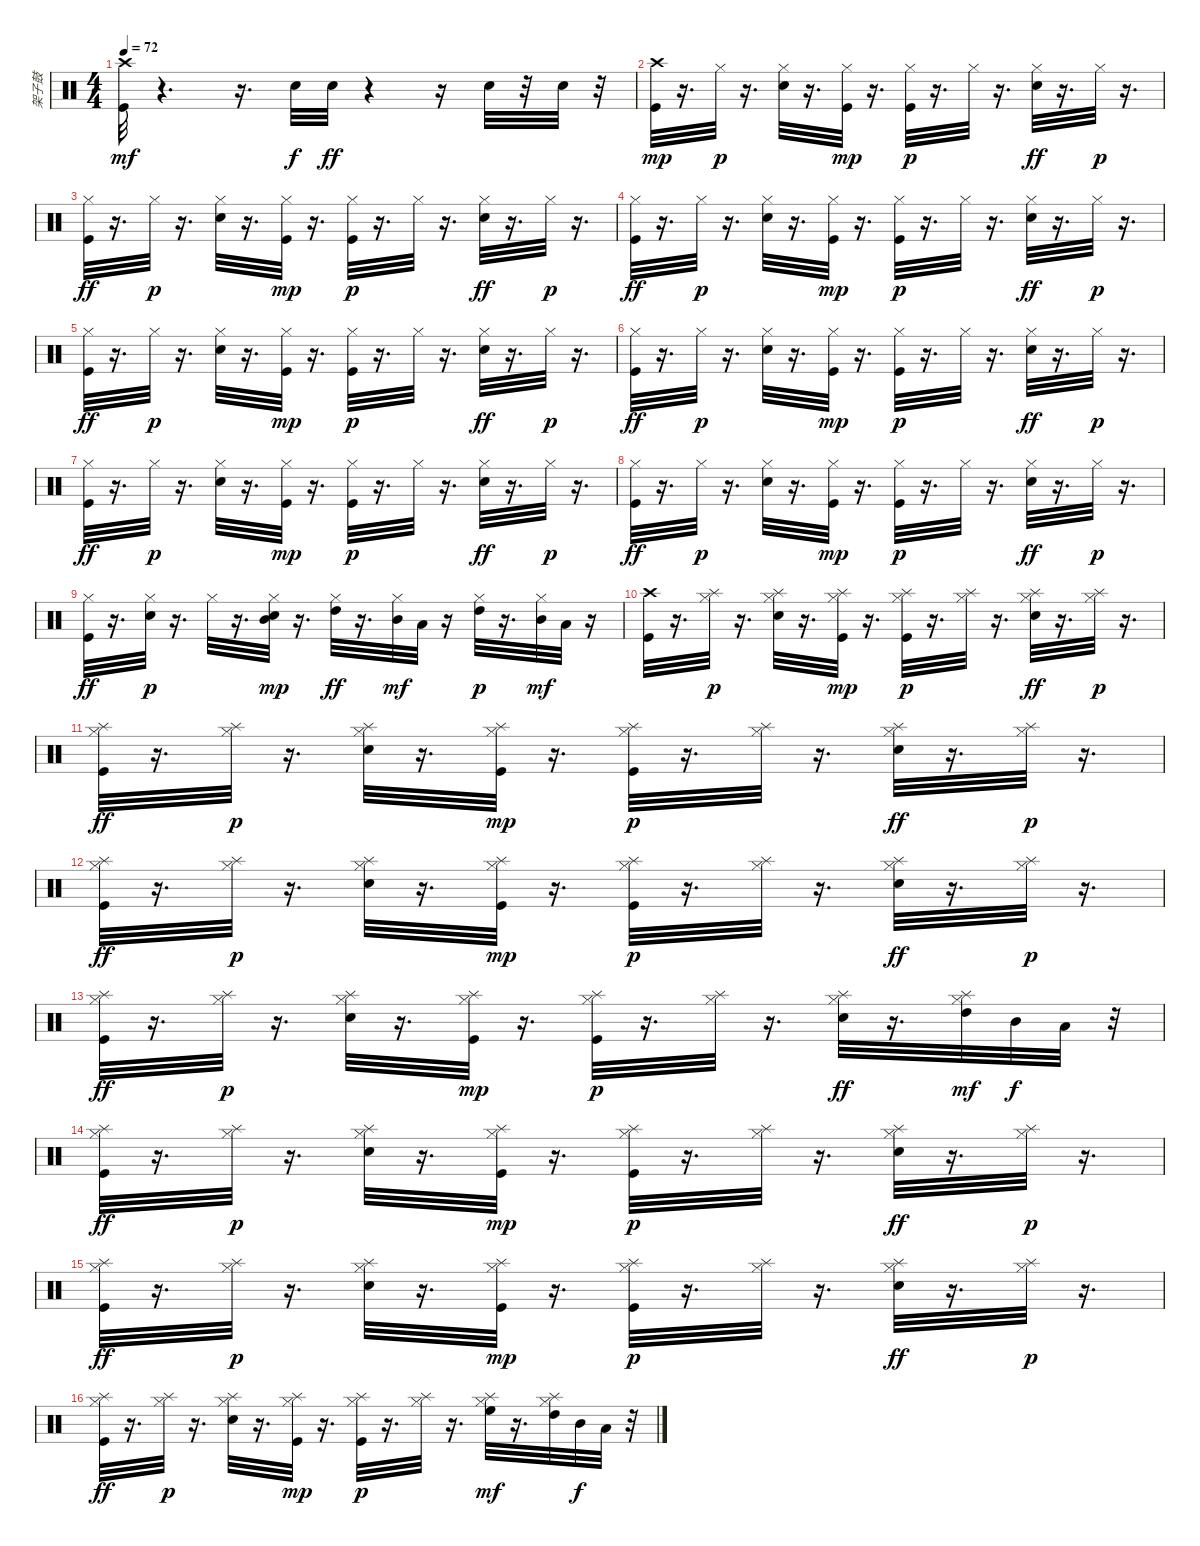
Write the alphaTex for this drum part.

\track ("架子鼓" "架子鼓") {instrument percussion}
\staff {score}
\articulation defaults
\ts (4 4)
\tempo 72
\clef neutral
\ks c
("Crash high (hit)" "Kick (hit)").32{dy mf} r.4{d} r.16{d} "Snare (hit) 2".32{dy f} "Snare (hit) 2".32{dy ff} r.4 r.16 "Snare (hit) 2".32 r.32 "Snare (hit) 2".32 r.32 |
("Crash high (hit)" "Kick (hit)").32{dy mp} r.16{d} "Hi-Hat (closed)".32{dy p} r.16{d} ("Hi-Hat (closed)" "Snare (hit) 2").32 r.16{d} ("Hi-Hat (closed)" "Kick (hit)").32{dy mp} r.16{d} ("Hi-Hat (closed)" "Kick (hit)").32{dy p} r.16{d} "Hi-Hat (closed)".32 r.16{d} ("Hi-Hat (closed)" "Snare (hit) 2").32{dy ff} r.16{d} "Hi-Hat (closed)".32{dy p} r.16{d} |
("Hi-Hat (closed)" "Kick (hit)").32{dy ff} r.16{d} "Hi-Hat (closed)".32{dy p} r.16{d} ("Hi-Hat (closed)" "Snare (hit) 2").32 r.16{d} ("Hi-Hat (closed)" "Kick (hit)").32{dy mp} r.16{d} ("Hi-Hat (closed)" "Kick (hit)").32{dy p} r.16{d} "Hi-Hat (closed)".32 r.16{d} ("Hi-Hat (closed)" "Snare (hit) 2").32{dy ff} r.16{d} "Hi-Hat (closed)".32{dy p} r.16{d} |
("Hi-Hat (closed)" "Kick (hit)").32{dy ff} r.16{d} "Hi-Hat (closed)".32{dy p} r.16{d} ("Hi-Hat (closed)" "Snare (hit) 2").32 r.16{d} ("Hi-Hat (closed)" "Kick (hit)").32{dy mp} r.16{d} ("Hi-Hat (closed)" "Kick (hit)").32{dy p} r.16{d} "Hi-Hat (closed)".32 r.16{d} ("Hi-Hat (closed)" "Snare (hit) 2").32{dy ff} r.16{d} "Hi-Hat (closed)".32{dy p} r.16{d} |
("Hi-Hat (closed)" "Kick (hit)").32{dy ff} r.16{d} "Hi-Hat (closed)".32{dy p} r.16{d} ("Hi-Hat (closed)" "Snare (hit) 2").32 r.16{d} ("Hi-Hat (closed)" "Kick (hit)").32{dy mp} r.16{d} ("Hi-Hat (closed)" "Kick (hit)").32{dy p} r.16{d} "Hi-Hat (closed)".32 r.16{d} ("Hi-Hat (closed)" "Snare (hit) 2").32{dy ff} r.16{d} "Hi-Hat (closed)".32{dy p} r.16{d} |
("Hi-Hat (closed)" "Kick (hit)").32{dy ff} r.16{d} "Hi-Hat (closed)".32{dy p} r.16{d} ("Hi-Hat (closed)" "Snare (hit) 2").32 r.16{d} ("Hi-Hat (closed)" "Kick (hit)").32{dy mp} r.16{d} ("Hi-Hat (closed)" "Kick (hit)").32{dy p} r.16{d} "Hi-Hat (closed)".32 r.16{d} ("Hi-Hat (closed)" "Snare (hit) 2").32{dy ff} r.16{d} "Hi-Hat (closed)".32{dy p} r.16{d} |
("Hi-Hat (closed)" "Kick (hit)").32{dy ff} r.16{d} "Hi-Hat (closed)".32{dy p} r.16{d} ("Hi-Hat (closed)" "Snare (hit) 2").32 r.16{d} ("Hi-Hat (closed)" "Kick (hit)").32{dy mp} r.16{d} ("Hi-Hat (closed)" "Kick (hit)").32{dy p} r.16{d} "Hi-Hat (closed)".32 r.16{d} ("Hi-Hat (closed)" "Snare (hit) 2").32{dy ff} r.16{d} "Hi-Hat (closed)".32{dy p} r.16{d} |
("Hi-Hat (closed)" "Kick (hit)").32{dy ff} r.16{d} "Hi-Hat (closed)".32{dy p} r.16{d} ("Hi-Hat (closed)" "Snare (hit) 2").32 r.16{d} ("Hi-Hat (closed)" "Kick (hit)").32{dy mp} r.16{d} ("Hi-Hat (closed)" "Kick (hit)").32{dy p} r.16{d} "Hi-Hat (closed)".32 r.16{d} ("Hi-Hat (closed)" "Snare (hit) 2").32{dy ff} r.16{d} "Hi-Hat (closed)".32{dy p} r.16{d} |
("Hi-Hat (closed)" "Kick (hit)").32{dy ff} r.16{d} ("Hi-Hat (closed)" "Snare (hit) 2").32{dy p} r.16{d} "Hi-Hat (closed)".32 r.16{d} ("Hi-Hat (closed)" "Mid Tom (hit)" "Snare (hit) 2").32{dy mp} r.16{d} ("Hi-Hat (closed)" "High Tom (hit)").32{dy ff} r.16{d} ("Hi-Hat (closed)" "Mid Tom (hit)").32{dy mf} "Low Tom (hit)".32 r.16 ("Hi-Hat (closed)" "High Tom (hit)").32{dy p} r.16{d} ("Hi-Hat (closed)" "Mid Tom (hit)").32{dy mf} "Low Tom (hit)".32 r.16 |
("Crash high (hit)" "Kick (hit)").32 r.16{d} ("Splash (hit)" "Hi-Hat (closed)").32{dy p} r.16{d} ("Splash (hit)" "Hi-Hat (closed)" "Snare (hit) 2").32 r.16{d} ("Splash (hit)" "Hi-Hat (closed)" "Kick (hit)").32{dy mp} r.16{d} ("Splash (hit)" "Hi-Hat (closed)" "Kick (hit)").32{dy p} r.16{d} ("Splash (hit)" "Hi-Hat (closed)").32 r.16{d} ("Splash (hit)" "Hi-Hat (closed)" "Snare (hit) 2").32{dy ff} r.16{d} ("Splash (hit)" "Hi-Hat (closed)").32{dy p} r.16{d} |
("Splash (hit)" "Hi-Hat (closed)" "Kick (hit)").32{dy ff} r.16{d} ("Splash (hit)" "Hi-Hat (closed)").32{dy p} r.16{d} ("Splash (hit)" "Hi-Hat (closed)" "Snare (hit) 2").32 r.16{d} ("Splash (hit)" "Hi-Hat (closed)" "Kick (hit)").32{dy mp} r.16{d} ("Splash (hit)" "Hi-Hat (closed)" "Kick (hit)").32{dy p} r.16{d} ("Splash (hit)" "Hi-Hat (closed)").32 r.16{d} ("Splash (hit)" "Hi-Hat (closed)" "Snare (hit) 2").32{dy ff} r.16{d} ("Splash (hit)" "Hi-Hat (closed)").32{dy p} r.16{d} |
("Splash (hit)" "Hi-Hat (closed)" "Kick (hit)").32{dy ff} r.16{d} ("Splash (hit)" "Hi-Hat (closed)").32{dy p} r.16{d} ("Splash (hit)" "Hi-Hat (closed)" "Snare (hit) 2").32 r.16{d} ("Splash (hit)" "Hi-Hat (closed)" "Kick (hit)").32{dy mp} r.16{d} ("Splash (hit)" "Hi-Hat (closed)" "Kick (hit)").32{dy p} r.16{d} ("Splash (hit)" "Hi-Hat (closed)").32 r.16{d} ("Splash (hit)" "Hi-Hat (closed)" "Snare (hit) 2").32{dy ff} r.16{d} ("Splash (hit)" "Hi-Hat (closed)").32{dy p} r.16{d} |
("Splash (hit)" "Hi-Hat (closed)" "Kick (hit)").32{dy ff} r.16{d} ("Splash (hit)" "Hi-Hat (closed)").32{dy p} r.16{d} ("Splash (hit)" "Hi-Hat (closed)" "Snare (hit) 2").32 r.16{d} ("Splash (hit)" "Hi-Hat (closed)" "Kick (hit)").32{dy mp} r.16{d} ("Splash (hit)" "Hi-Hat (closed)" "Kick (hit)").32{dy p} r.16{d} ("Splash (hit)" "Hi-Hat (closed)").32 r.16{d} ("Splash (hit)" "Hi-Hat (closed)" "Snare (hit) 2").32{dy ff} r.16{d} ("Splash (hit)" "Hi-Hat (closed)" "High Tom (hit)").32{dy mf} "Mid Tom (hit)".32{dy f} "Low Tom (hit)".32 r.32 |
("Splash (hit)" "Hi-Hat (closed)" "Kick (hit)").32{dy ff} r.16{d} ("Splash (hit)" "Hi-Hat (closed)").32{dy p} r.16{d} ("Splash (hit)" "Hi-Hat (closed)" "Snare (hit) 2").32 r.16{d} ("Splash (hit)" "Hi-Hat (closed)" "Kick (hit)").32{dy mp} r.16{d} ("Splash (hit)" "Hi-Hat (closed)" "Kick (hit)").32{dy p} r.16{d} ("Splash (hit)" "Hi-Hat (closed)").32 r.16{d} ("Splash (hit)" "Hi-Hat (closed)" "Snare (hit) 2").32{dy ff} r.16{d} ("Splash (hit)" "Hi-Hat (closed)").32{dy p} r.16{d} |
("Splash (hit)" "Hi-Hat (closed)" "Kick (hit)").32{dy ff} r.16{d} ("Splash (hit)" "Hi-Hat (closed)").32{dy p} r.16{d} ("Splash (hit)" "Hi-Hat (closed)" "Snare (hit) 2").32 r.16{d} ("Splash (hit)" "Hi-Hat (closed)" "Kick (hit)").32{dy mp} r.16{d} ("Splash (hit)" "Hi-Hat (closed)" "Kick (hit)").32{dy p} r.16{d} ("Splash (hit)" "Hi-Hat (closed)").32 r.16{d} ("Splash (hit)" "Hi-Hat (closed)" "Snare (hit) 2").32{dy ff} r.16{d} ("Splash (hit)" "Hi-Hat (closed)").32{dy p} r.16{d} |
("Splash (hit)" "Hi-Hat (closed)" "Kick (hit)").32{dy ff} r.16{d} ("Splash (hit)" "Hi-Hat (closed)").32{dy p} r.16{d} ("Splash (hit)" "Hi-Hat (closed)" "Snare (hit) 2").32 r.16{d} ("Splash (hit)" "Hi-Hat (closed)" "Kick (hit)").32{dy mp} r.16{d} ("Splash (hit)" "Hi-Hat (closed)" "Kick (hit)").32{dy p} r.16{d} ("Splash (hit)" "Hi-Hat (closed)").32 r.16{d} ("Splash (hit)" "Hi-Hat (closed)" "High Floor Tom (hit)").32{dy mf} r.16{d} ("Splash (hit)" "Hi-Hat (closed)" "High Tom (hit)").32 "Mid Tom (hit)".32{dy f} "Low Tom (hit)".32 r.32
